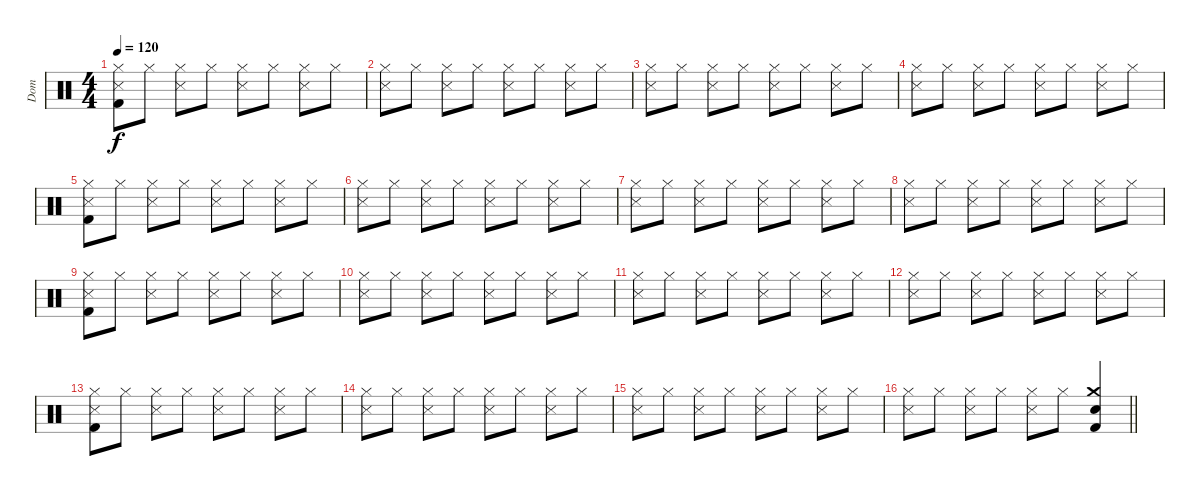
\track ("Dom" "Dom") {instrument percussion}
\staff {score}
\articulation defaults
\ts (4 4)
\section ("" "")
\tempo 120
\clef neutral
\ks c
("Hi-Hat (closed)" "Snare (side stick) 3" "Kick (hit) 2").8{dy f} "Hi-Hat (closed)".8 ("Hi-Hat (closed)" "Snare (side stick) 3").8 "Hi-Hat (closed)".8 ("Hi-Hat (closed)" "Snare (side stick) 3").8 "Hi-Hat (closed)".8 ("Hi-Hat (closed)" "Snare (side stick) 3").8 "Hi-Hat (closed)".8 |
("Hi-Hat (closed)" "Snare (side stick) 3").8 "Hi-Hat (closed)".8 ("Hi-Hat (closed)" "Snare (side stick) 3").8 "Hi-Hat (closed)".8 ("Hi-Hat (closed)" "Snare (side stick) 3").8 "Hi-Hat (closed)".8 ("Hi-Hat (closed)" "Snare (side stick) 3").8 "Hi-Hat (closed)".8 |
("Hi-Hat (closed)" "Snare (side stick) 3").8 "Hi-Hat (closed)".8 ("Hi-Hat (closed)" "Snare (side stick) 3").8 "Hi-Hat (closed)".8 ("Hi-Hat (closed)" "Snare (side stick) 3").8 "Hi-Hat (closed)".8 ("Hi-Hat (closed)" "Snare (side stick) 3").8 "Hi-Hat (closed)".8 |
("Hi-Hat (closed)" "Snare (side stick) 3").8 "Hi-Hat (closed)".8 ("Hi-Hat (closed)" "Snare (side stick) 3").8 "Hi-Hat (closed)".8 ("Hi-Hat (closed)" "Snare (side stick) 3").8 "Hi-Hat (closed)".8 ("Hi-Hat (closed)" "Snare (side stick) 3").8 "Hi-Hat (closed)".8 |
("Hi-Hat (closed)" "Snare (side stick) 3" "Kick (hit) 2").8 "Hi-Hat (closed)".8 ("Hi-Hat (closed)" "Snare (side stick) 3").8 "Hi-Hat (closed)".8 ("Hi-Hat (closed)" "Snare (side stick) 3").8 "Hi-Hat (closed)".8 ("Hi-Hat (closed)" "Snare (side stick) 3").8 "Hi-Hat (closed)".8 |
("Hi-Hat (closed)" "Snare (side stick) 3").8 "Hi-Hat (closed)".8 ("Hi-Hat (closed)" "Snare (side stick) 3").8 "Hi-Hat (closed)".8 ("Hi-Hat (closed)" "Snare (side stick) 3").8 "Hi-Hat (closed)".8 ("Hi-Hat (closed)" "Snare (side stick) 3").8 "Hi-Hat (closed)".8 |
("Hi-Hat (closed)" "Snare (side stick) 3").8 "Hi-Hat (closed)".8 ("Hi-Hat (closed)" "Snare (side stick) 3").8 "Hi-Hat (closed)".8 ("Hi-Hat (closed)" "Snare (side stick) 3").8 "Hi-Hat (closed)".8 ("Hi-Hat (closed)" "Snare (side stick) 3").8 "Hi-Hat (closed)".8 |
("Hi-Hat (closed)" "Snare (side stick) 3").8 "Hi-Hat (closed)".8 ("Hi-Hat (closed)" "Snare (side stick) 3").8 "Hi-Hat (closed)".8 ("Hi-Hat (closed)" "Snare (side stick) 3").8 "Hi-Hat (closed)".8 ("Hi-Hat (closed)" "Snare (side stick) 3").8 "Hi-Hat (closed)".8 |
("Hi-Hat (closed)" "Snare (side stick) 3" "Kick (hit) 2").8 "Hi-Hat (closed)".8 ("Hi-Hat (closed)" "Snare (side stick) 3").8 "Hi-Hat (closed)".8 ("Hi-Hat (closed)" "Snare (side stick) 3").8 "Hi-Hat (closed)".8 ("Hi-Hat (closed)" "Snare (side stick) 3").8 "Hi-Hat (closed)".8 |
("Hi-Hat (closed)" "Snare (side stick) 3").8 "Hi-Hat (closed)".8 ("Hi-Hat (closed)" "Snare (side stick) 3").8 "Hi-Hat (closed)".8 ("Hi-Hat (closed)" "Snare (side stick) 3").8 "Hi-Hat (closed)".8 ("Hi-Hat (closed)" "Snare (side stick) 3").8 "Hi-Hat (closed)".8 |
("Hi-Hat (closed)" "Snare (side stick) 3").8 "Hi-Hat (closed)".8 ("Hi-Hat (closed)" "Snare (side stick) 3").8 "Hi-Hat (closed)".8 ("Hi-Hat (closed)" "Snare (side stick) 3").8 "Hi-Hat (closed)".8 ("Hi-Hat (closed)" "Snare (side stick) 3").8 "Hi-Hat (closed)".8 |
("Hi-Hat (closed)" "Snare (side stick) 3").8 "Hi-Hat (closed)".8 ("Hi-Hat (closed)" "Snare (side stick) 3").8 "Hi-Hat (closed)".8 ("Hi-Hat (closed)" "Snare (side stick) 3").8 "Hi-Hat (closed)".8 ("Hi-Hat (closed)" "Snare (side stick) 3").8 "Hi-Hat (closed)".8 |
("Hi-Hat (closed)" "Snare (side stick) 3" "Kick (hit) 2").8 "Hi-Hat (closed)".8 ("Hi-Hat (closed)" "Snare (side stick) 3").8 "Hi-Hat (closed)".8 ("Hi-Hat (closed)" "Snare (side stick) 3").8 "Hi-Hat (closed)".8 ("Hi-Hat (closed)" "Snare (side stick) 3").8 "Hi-Hat (closed)".8 |
("Hi-Hat (closed)" "Snare (side stick) 3").8 "Hi-Hat (closed)".8 ("Hi-Hat (closed)" "Snare (side stick) 3").8 "Hi-Hat (closed)".8 ("Hi-Hat (closed)" "Snare (side stick) 3").8 "Hi-Hat (closed)".8 ("Hi-Hat (closed)" "Snare (side stick) 3").8 "Hi-Hat (closed)".8 |
("Hi-Hat (closed)" "Snare (side stick) 3").8 "Hi-Hat (closed)".8 ("Hi-Hat (closed)" "Snare (side stick) 3").8 "Hi-Hat (closed)".8 ("Hi-Hat (closed)" "Snare (side stick) 3").8 "Hi-Hat (closed)".8 ("Hi-Hat (closed)" "Snare (side stick) 3").8 "Hi-Hat (closed)".8 |
\barLineRight lightlight
("Hi-Hat (closed)" "Snare (side stick) 3").8 "Hi-Hat (closed)".8 ("Hi-Hat (closed)" "Snare (side stick) 3").8 "Hi-Hat (closed)".8 ("Hi-Hat (closed)" "Snare (side stick) 3").8 "Hi-Hat (closed)".8 ("Crash medium (hit)" "Electric Snare (hit)" "Kick (hit) 2").4
